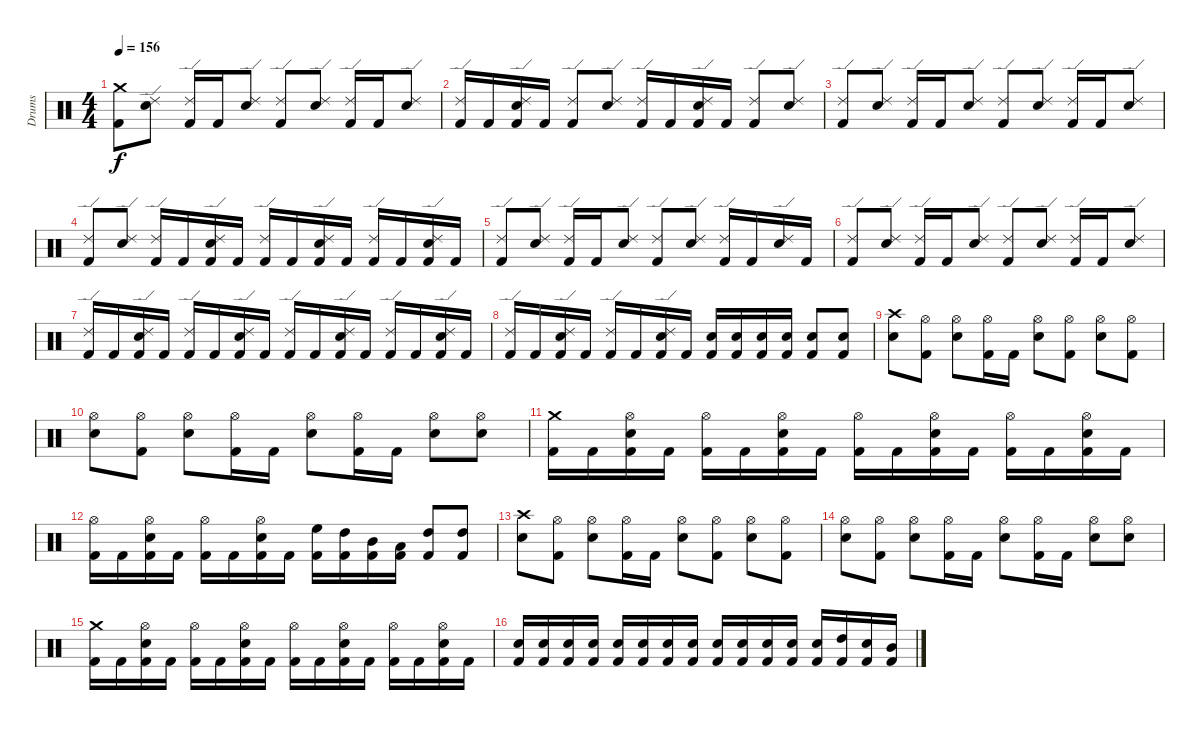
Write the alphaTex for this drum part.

\track ("Drums" "Drums") {instrument percussion}
\staff {score}
\articulation defaults
\ts (4 4)
\tempo 156
\clef neutral
\ks c
("Kick (hit) 2" "Crash medium (hit)").8{dy f} ("Snare (hit) 2" "Ride (edge) 2").8 ("Kick (hit) 2" "Ride (edge) 2").16 "Kick (hit) 2".16 ("Snare (hit) 2" "Ride (edge) 2").8 ("Kick (hit) 2" "Ride (edge) 2").8 ("Snare (hit) 2" "Ride (edge) 2").8 ("Kick (hit) 2" "Ride (edge) 2").16 "Kick (hit) 2".16 ("Snare (hit) 2" "Ride (edge) 2").8 |
("Kick (hit) 2" "Ride (edge) 2").16 "Kick (hit) 2".16 ("Kick (hit) 2" "Snare (hit) 2" "Ride (edge) 2").16 "Kick (hit) 2".16 ("Kick (hit) 2" "Ride (edge) 2").8 ("Snare (hit) 2" "Ride (edge) 2").8 ("Kick (hit) 2" "Ride (edge) 2").16 "Kick (hit) 2".16 ("Kick (hit) 2" "Snare (hit) 2" "Ride (edge) 2").16 "Kick (hit) 2".16 ("Kick (hit) 2" "Ride (edge) 2").8 ("Snare (hit) 2" "Ride (edge) 2").8 |
("Kick (hit) 2" "Ride (edge) 2").8 ("Snare (hit) 2" "Ride (edge) 2").8 ("Kick (hit) 2" "Ride (edge) 2").16 "Kick (hit) 2".16 ("Snare (hit) 2" "Ride (edge) 2").8 ("Kick (hit) 2" "Ride (edge) 2").8 ("Snare (hit) 2" "Ride (edge) 2").8 ("Kick (hit) 2" "Ride (edge) 2").16 "Kick (hit) 2".16 ("Snare (hit) 2" "Ride (edge) 2").8 |
("Kick (hit) 2" "Ride (edge) 2").8 ("Snare (hit) 2" "Ride (edge) 2").8 ("Kick (hit) 2" "Ride (edge) 2").16 "Kick (hit) 2".16 ("Kick (hit) 2" "Snare (hit) 2" "Ride (edge) 2").16 "Kick (hit) 2".16 ("Kick (hit) 2" "Ride (edge) 2").16 "Kick (hit) 2".16 ("Kick (hit) 2" "Snare (hit) 2" "Ride (edge) 2").16 "Kick (hit) 2".16 ("Kick (hit) 2" "Ride (edge) 2").16 "Kick (hit) 2".16 ("Kick (hit) 2" "Snare (hit) 2" "Ride (edge) 2").16 "Kick (hit) 2".16 |
("Kick (hit) 2" "Ride (edge) 2").8 ("Snare (hit) 2" "Ride (edge) 2").8 ("Kick (hit) 2" "Ride (edge) 2").16 "Kick (hit) 2".16 ("Snare (hit) 2" "Ride (edge) 2").8 ("Kick (hit) 2" "Ride (edge) 2").8 ("Snare (hit) 2" "Ride (edge) 2").8 ("Kick (hit) 2" "Ride (edge) 2").16 "Kick (hit) 2".16 ("Snare (hit) 2" "Ride (edge) 2").16 "Kick (hit) 2".16 |
("Kick (hit) 2" "Ride (edge) 2").8 ("Snare (hit) 2" "Ride (edge) 2").8 ("Kick (hit) 2" "Ride (edge) 2").16 "Kick (hit) 2".16 ("Snare (hit) 2" "Ride (edge) 2").8 ("Kick (hit) 2" "Ride (edge) 2").8 ("Snare (hit) 2" "Ride (edge) 2").8 ("Kick (hit) 2" "Ride (edge) 2").16 "Kick (hit) 2".16 ("Snare (hit) 2" "Ride (edge) 2").8 |
("Kick (hit) 2" "Ride (edge) 2").16 "Kick (hit) 2".16 ("Kick (hit) 2" "Snare (hit) 2" "Ride (edge) 2").16 "Kick (hit) 2".16 ("Kick (hit) 2" "Ride (edge) 2").16 "Kick (hit) 2".16 ("Kick (hit) 2" "Snare (hit) 2" "Ride (edge) 2").16 "Kick (hit) 2".16 ("Kick (hit) 2" "Ride (edge) 2").16 "Kick (hit) 2".16 ("Kick (hit) 2" "Snare (hit) 2" "Ride (edge) 2").16 "Kick (hit) 2".16 ("Kick (hit) 2" "Ride (edge) 2").16 "Kick (hit) 2".16 ("Kick (hit) 2" "Snare (hit) 2" "Ride (edge) 2").16 "Kick (hit) 2".16 |
("Kick (hit) 2" "Ride (edge) 2").16 "Kick (hit) 2".16 ("Kick (hit) 2" "Snare (hit) 2" "Ride (edge) 2").16 "Kick (hit) 2".16 ("Kick (hit) 2" "Ride (edge) 2").16 "Kick (hit) 2".16 ("Kick (hit) 2" "Snare (hit) 2" "Ride (edge) 2").16 "Kick (hit) 2".16 ("Kick (hit) 2" "Snare (hit) 2").16 ("Kick (hit) 2" "Snare (hit) 2").16 ("Kick (hit) 2" "Snare (hit) 2").16 ("Kick (hit) 2" "Snare (hit) 2").16 ("Kick (hit) 2" "Snare (hit) 2").8 ("Kick (hit) 2" "Snare (hit) 2").8 |
\section ("" "")
("Snare (hit) 2" "Crash high (hit)").8 ("Kick (hit) 2" "Hi-Hat (open)").8 ("Snare (hit) 2" "Hi-Hat (open)").8 ("Kick (hit) 2" "Hi-Hat (open)").16 "Kick (hit) 2".16 ("Snare (hit) 2" "Hi-Hat (open)").8 ("Kick (hit) 2" "Hi-Hat (open)").8 ("Snare (hit) 2" "Hi-Hat (open)").8 ("Kick (hit) 2" "Hi-Hat (open)").8 |
("Snare (hit) 2" "Hi-Hat (open)").8 ("Kick (hit) 2" "Hi-Hat (open)").8 ("Snare (hit) 2" "Hi-Hat (open)").8 ("Kick (hit) 2" "Hi-Hat (open)").16 "Kick (hit) 2".16 ("Snare (hit) 2" "Hi-Hat (open)").8 ("Kick (hit) 2" "Hi-Hat (open)").16 "Kick (hit) 2".16 ("Snare (hit) 2" "Hi-Hat (open)").8 ("Snare (hit) 2" "Hi-Hat (open)").8 |
("Kick (hit) 2" "Crash medium (hit)").16 "Kick (hit) 2".16 ("Kick (hit) 2" "Snare (hit) 2" "Hi-Hat (open)").16 "Kick (hit) 2".16 ("Kick (hit) 2" "Hi-Hat (open)").16 "Kick (hit) 2".16 ("Kick (hit) 2" "Snare (hit) 2" "Hi-Hat (open)").16 "Kick (hit) 2".16 ("Kick (hit) 2" "Hi-Hat (open)").16 "Kick (hit) 2".16 ("Kick (hit) 2" "Snare (hit) 2" "Hi-Hat (open)").16 "Kick (hit) 2".16 ("Kick (hit) 2" "Hi-Hat (open)").16 "Kick (hit) 2".16 ("Kick (hit) 2" "Snare (hit) 2" "Hi-Hat (open)").16 "Kick (hit) 2".16 |
("Kick (hit) 2" "Hi-Hat (open)").16 "Kick (hit) 2".16 ("Kick (hit) 2" "Snare (hit) 2" "Hi-Hat (open)").16 "Kick (hit) 2".16 ("Kick (hit) 2" "Hi-Hat (open)").16 "Kick (hit) 2".16 ("Kick (hit) 2" "Snare (hit) 2" "Hi-Hat (open)").16 "Kick (hit) 2".16 ("Kick (hit) 2" "High Floor Tom (hit)").16 ("Kick (hit) 2" "High Tom (hit)").16 ("Kick (hit) 2" "Mid Tom (hit)").16 ("Kick (hit) 2" "Low Tom (hit)").16 ("Kick (hit) 2" "High Tom (hit)").8 ("Kick (hit) 2" "High Tom (hit)").8 |
("Snare (hit) 2" "Crash high (hit)").8 ("Kick (hit) 2" "Hi-Hat (open)").8 ("Snare (hit) 2" "Hi-Hat (open)").8 ("Kick (hit) 2" "Hi-Hat (open)").16 "Kick (hit) 2".16 ("Snare (hit) 2" "Hi-Hat (open)").8 ("Kick (hit) 2" "Hi-Hat (open)").8 ("Snare (hit) 2" "Hi-Hat (open)").8 ("Kick (hit) 2" "Hi-Hat (open)").8 |
("Snare (hit) 2" "Hi-Hat (open)").8 ("Kick (hit) 2" "Hi-Hat (open)").8 ("Snare (hit) 2" "Hi-Hat (open)").8 ("Kick (hit) 2" "Hi-Hat (open)").16 "Kick (hit) 2".16 ("Snare (hit) 2" "Hi-Hat (open)").8 ("Kick (hit) 2" "Hi-Hat (open)").16 "Kick (hit) 2".16 ("Snare (hit) 2" "Hi-Hat (open)").8 ("Snare (hit) 2" "Hi-Hat (open)").8 |
("Kick (hit) 2" "Crash medium (hit)").16 "Kick (hit) 2".16 ("Kick (hit) 2" "Snare (hit) 2" "Hi-Hat (open)").16 "Kick (hit) 2".16 ("Kick (hit) 2" "Hi-Hat (open)").16 "Kick (hit) 2".16 ("Kick (hit) 2" "Snare (hit) 2" "Hi-Hat (open)").16 "Kick (hit) 2".16 ("Kick (hit) 2" "Hi-Hat (open)").16 "Kick (hit) 2".16 ("Kick (hit) 2" "Snare (hit) 2" "Hi-Hat (open)").16 "Kick (hit) 2".16 ("Kick (hit) 2" "Hi-Hat (open)").16 "Kick (hit) 2".16 ("Kick (hit) 2" "Snare (hit) 2" "Hi-Hat (open)").16 "Kick (hit) 2".16 |
("Kick (hit) 2" "Snare (hit) 2").16 ("Kick (hit) 2" "Snare (hit) 2").16 ("Kick (hit) 2" "Snare (hit) 2").16 ("Kick (hit) 2" "Snare (hit) 2").16 ("Kick (hit) 2" "Snare (hit) 2").16 ("Kick (hit) 2" "Snare (hit) 2").16 ("Kick (hit) 2" "Snare (hit) 2").16 ("Kick (hit) 2" "Snare (hit) 2").16 ("Kick (hit) 2" "Snare (hit) 2").16 ("Kick (hit) 2" "Snare (hit) 2").16 ("Kick (hit) 2" "Snare (hit) 2").16 ("Kick (hit) 2" "Snare (hit) 2").16 ("Kick (hit) 2" "Snare (hit) 2").16 ("Kick (hit) 2" "High Tom (hit)").16 ("Kick (hit) 2" "Snare (hit) 2").16 ("Kick (hit) 2" "Mid Tom (hit)").16
